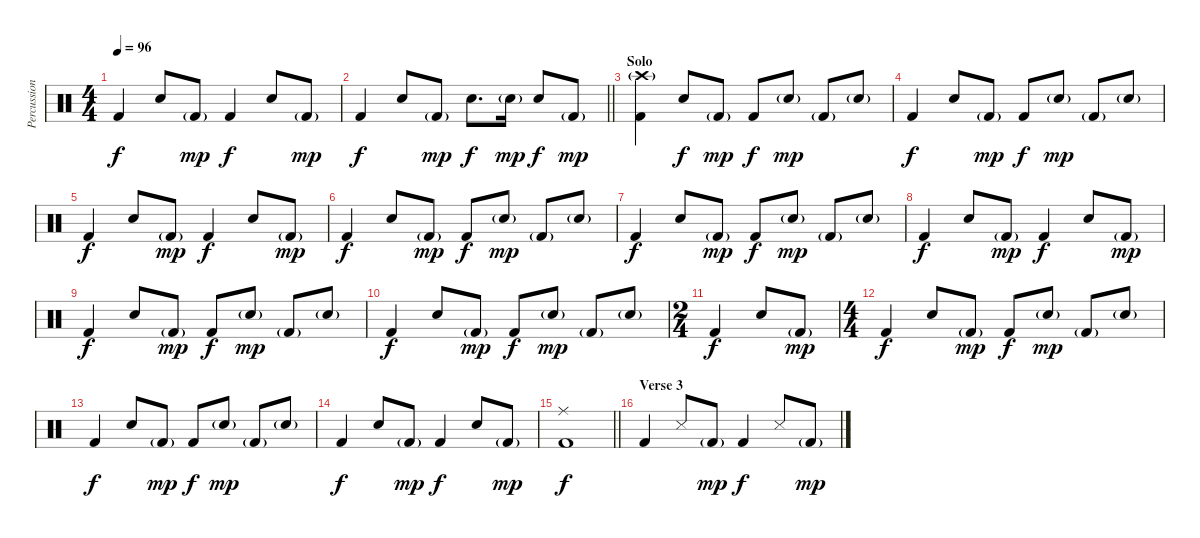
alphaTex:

\track ("Percussion" "Percussion") {instrument percussion}
\staff {score}
\articulation defaults
\ts (4 4)
\tempo 96
\clef neutral
\ks c "Kick (hit) 2".4{dy f} "Snare (hit) 2".8 "Kick (hit) 2"{g}.8{dy mp} "Kick (hit) 2".4{dy f} "Snare (hit) 2".8 "Kick (hit) 2"{g}.8{dy mp}
|
\barLineRight lightlight "Kick (hit) 2".4{dy f} "Snare (hit) 2".8 "Kick (hit) 2"{g}.8{dy mp} "Snare (hit) 2".8{d dy f} "Snare (hit) 2"{g}.16{dy mp} "Snare (hit) 2".8{dy f} "Kick (hit) 2"{g}.8{dy mp}
|
\section ("" "Solo")
("Crash high (hit)"{g} "Kick (hit) 2").4 "Snare (hit) 2".8{dy f} "Kick (hit) 2"{g}.8{dy mp} "Kick (hit) 2".8{dy f} "Snare (hit) 2"{g}.8{dy mp} "Kick (hit) 2"{g}.8 "Snare (hit) 2"{g}.8 |
"Kick (hit) 2".4{dy f} "Snare (hit) 2".8 "Kick (hit) 2"{g}.8{dy mp} "Kick (hit) 2".8{dy f} "Snare (hit) 2"{g}.8{dy mp} "Kick (hit) 2"{g}.8 "Snare (hit) 2"{g}.8 |
"Kick (hit) 2".4{dy f} "Snare (hit) 2".8 "Kick (hit) 2"{g}.8{dy mp} "Kick (hit) 2".4{dy f} "Snare (hit) 2".8 "Kick (hit) 2"{g}.8{dy mp} |
"Kick (hit) 2".4{dy f} "Snare (hit) 2".8 "Kick (hit) 2"{g}.8{dy mp} "Kick (hit) 2".8{dy f} "Snare (hit) 2"{g}.8{dy mp} "Kick (hit) 2"{g}.8 "Snare (hit) 2"{g}.8 |
"Kick (hit) 2".4{dy f} "Snare (hit) 2".8 "Kick (hit) 2"{g}.8{dy mp} "Kick (hit) 2".8{dy f} "Snare (hit) 2"{g}.8{dy mp} "Kick (hit) 2"{g}.8 "Snare (hit) 2"{g}.8 |
"Kick (hit) 2".4{dy f} "Snare (hit) 2".8 "Kick (hit) 2"{g}.8{dy mp} "Kick (hit) 2".4{dy f} "Snare (hit) 2".8 "Kick (hit) 2"{g}.8{dy mp} |
"Kick (hit) 2".4{dy f} "Snare (hit) 2".8 "Kick (hit) 2"{g}.8{dy mp} "Kick (hit) 2".8{dy f} "Snare (hit) 2"{g}.8{dy mp} "Kick (hit) 2"{g}.8 "Snare (hit) 2"{g}.8 |
"Kick (hit) 2".4{dy f} "Snare (hit) 2".8 "Kick (hit) 2"{g}.8{dy mp} "Kick (hit) 2".8{dy f} "Snare (hit) 2"{g}.8{dy mp} "Kick (hit) 2"{g}.8 "Snare (hit) 2"{g}.8 |
\ts (2 4)
"Kick (hit) 2".4{dy f} "Snare (hit) 2".8 "Kick (hit) 2"{g}.8{dy mp} |
\ts (4 4)
"Kick (hit) 2".4{dy f} "Snare (hit) 2".8 "Kick (hit) 2"{g}.8{dy mp} "Kick (hit) 2".8{dy f} "Snare (hit) 2"{g}.8{dy mp} "Kick (hit) 2"{g}.8 "Snare (hit) 2"{g}.8 |
"Kick (hit) 2".4{dy f} "Snare (hit) 2".8 "Kick (hit) 2"{g}.8{dy mp} "Kick (hit) 2".8{dy f} "Snare (hit) 2"{g}.8{dy mp} "Kick (hit) 2"{g}.8 "Snare (hit) 2"{g}.8 |
"Kick (hit) 2".4{dy f} "Snare (hit) 2".8 "Kick (hit) 2"{g}.8{dy mp} "Kick (hit) 2".4{dy f} "Snare (hit) 2".8 "Kick (hit) 2"{g}.8{dy mp} |
\barLineRight lightlight
("Ride (middle)" "Kick (hit) 2").1{dy f} |
\section ("" "Verse 3")
"Kick (hit) 2".4 "Snare (side stick) 3".8 "Kick (hit) 2"{g}.8{dy mp} "Kick (hit) 2".4{dy f} "Snare (side stick) 3".8 "Kick (hit) 2"{g}.8{dy mp}
